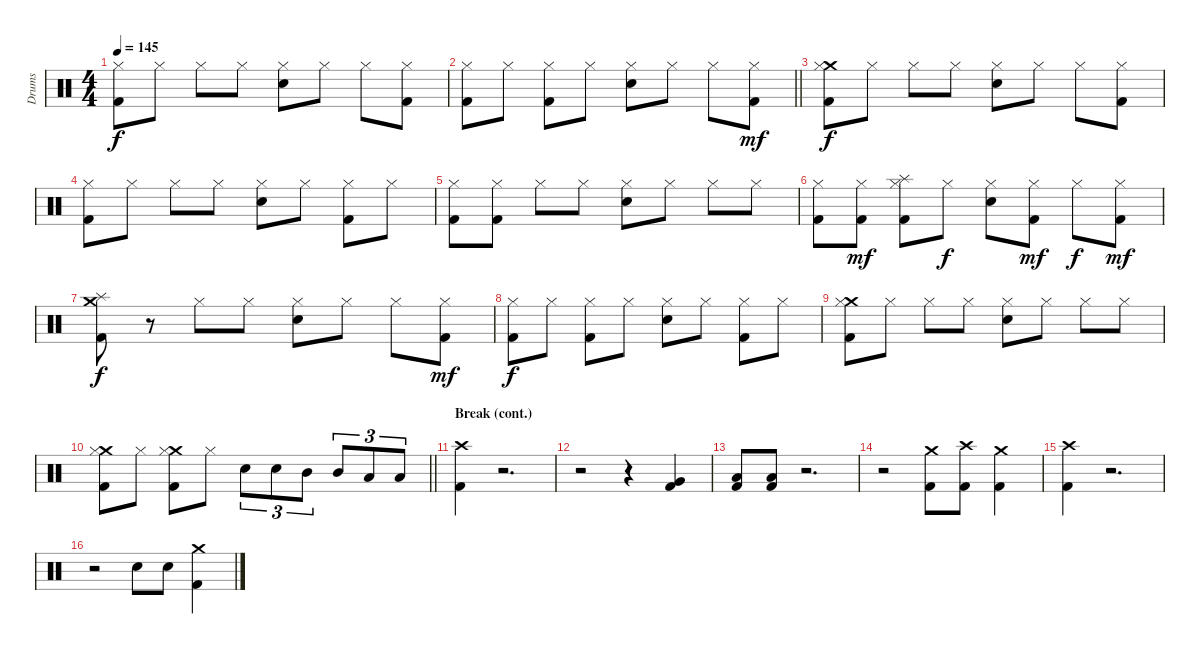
\track ("Drums" "Drums") {instrument percussion}
\staff {score}
\articulation defaults
\ts (4 4)
\tempo 145
\clef neutral
\ks c
("Hi-Hat (closed)" "Kick (hit) 2").8{dy f} "Hi-Hat (closed)".8 "Hi-Hat (closed)".8 "Hi-Hat (closed)".8 ("Hi-Hat (closed)" "Snare (hit) 2").8 "Hi-Hat (closed)".8 "Hi-Hat (closed)".8 ("Hi-Hat (closed)" "Kick (hit) 2").8 |
\barLineRight lightlight
("Hi-Hat (closed)" "Kick (hit) 2").8 "Hi-Hat (closed)".8 ("Hi-Hat (closed)" "Kick (hit) 2").8 "Hi-Hat (closed)".8 ("Hi-Hat (closed)" "Snare (hit) 2").8 "Hi-Hat (closed)".8 "Hi-Hat (closed)".8 ("Hi-Hat (closed)" "Kick (hit) 2").8{dy mf} |
("Crash medium (hit)" "Hi-Hat (closed)" "Kick (hit) 2").8{dy f} "Hi-Hat (closed)".8 "Hi-Hat (closed)".8 "Hi-Hat (closed)".8 ("Hi-Hat (closed)" "Snare (hit) 2").8 "Hi-Hat (closed)".8 "Hi-Hat (closed)".8 ("Hi-Hat (closed)" "Kick (hit) 2").8 |
("Hi-Hat (closed)" "Kick (hit) 2").8 "Hi-Hat (closed)".8 "Hi-Hat (closed)".8 "Hi-Hat (closed)".8 ("Hi-Hat (closed)" "Snare (hit) 2").8 "Hi-Hat (closed)".8 ("Hi-Hat (closed)" "Kick (hit) 2").8 "Hi-Hat (closed)".8 |
("Hi-Hat (closed)" "Kick (hit) 2").8 ("Hi-Hat (closed)" "Kick (hit) 2").8 "Hi-Hat (closed)".8 "Hi-Hat (closed)".8 ("Hi-Hat (closed)" "Snare (hit) 2").8 "Hi-Hat (closed)".8 "Hi-Hat (closed)".8 "Hi-Hat (closed)".8 |
("Hi-Hat (closed)" "Kick (hit) 2").8 ("Hi-Hat (closed)" "Kick (hit) 2").8{dy mf} ("Splash (hit)" "Hi-Hat (closed)" "Kick (hit) 2").8 "Hi-Hat (closed)".8{dy f} ("Hi-Hat (closed)" "Snare (hit) 2").8 ("Hi-Hat (closed)" "Kick (hit) 2").8{dy mf} "Hi-Hat (closed)".8{dy f} ("Hi-Hat (closed)" "Kick (hit) 2").8{dy mf} |
("Crash medium (hit)" "Splash (hit)" "Kick (hit) 2").8{dy f} r.8 "Hi-Hat (closed)".8 "Hi-Hat (closed)".8 ("Hi-Hat (closed)" "Snare (hit) 2").8 "Hi-Hat (closed)".8 "Hi-Hat (closed)".8 ("Hi-Hat (closed)" "Kick (hit) 2").8{dy mf} |
("Hi-Hat (closed)" "Kick (hit) 2").8{dy f} "Hi-Hat (closed)".8 ("Hi-Hat (closed)" "Kick (hit) 2").8 "Hi-Hat (closed)".8 ("Hi-Hat (closed)" "Snare (hit) 2").8 "Hi-Hat (closed)".8 ("Hi-Hat (closed)" "Kick (hit) 2").8 "Hi-Hat (closed)".8 |
("Crash medium (hit)" "Hi-Hat (closed)" "Kick (hit) 2").8 "Hi-Hat (closed)".8 "Hi-Hat (closed)".8 "Hi-Hat (closed)".8 ("Hi-Hat (closed)" "Snare (hit) 2").8 "Hi-Hat (closed)".8 "Hi-Hat (closed)".8 "Hi-Hat (closed)".8 |
\barLineRight lightlight
("Crash medium (hit)" "Hi-Hat (closed)" "Kick (hit) 2").8 "Hi-Hat (closed)".8 ("Crash medium (hit)" "Hi-Hat (closed)" "Kick (hit) 2").8 "Hi-Hat (closed)".8 "Snare (hit) 2".8{tu (3 2)} "Snare (hit) 2".8{tu (3 2)} "Mid Tom (hit)".8{tu (3 2)} "Mid Tom (hit)".8{tu (3 2)} "Low Tom (hit)".8{tu (3 2)} "Low Floor Tom (hit)".8{tu (3 2)} |
\section ("" "Break (cont.)")
("Crash high (hit)" "Kick (hit) 2").4 r.2{d} |
r.2 r.4 ("Very Low Tom (hit)" "Kick (hit) 2").4 |
("Low Floor Tom (hit)" "Kick (hit) 2").8 ("Low Floor Tom (hit)" "Kick (hit) 2").8 r.2{d} |
r.2 ("Crash medium (hit)" "Kick (hit) 2").8 ("Crash high (hit)" "Kick (hit) 2").8 ("Crash medium (hit)" "Kick (hit) 2").4 |
("Crash high (hit)" "Kick (hit) 2").4 r.2{d} |
r.2 "Snare (hit) 2".8 "Snare (hit) 2".8 ("Crash medium (hit)" "Kick (hit) 2").4
